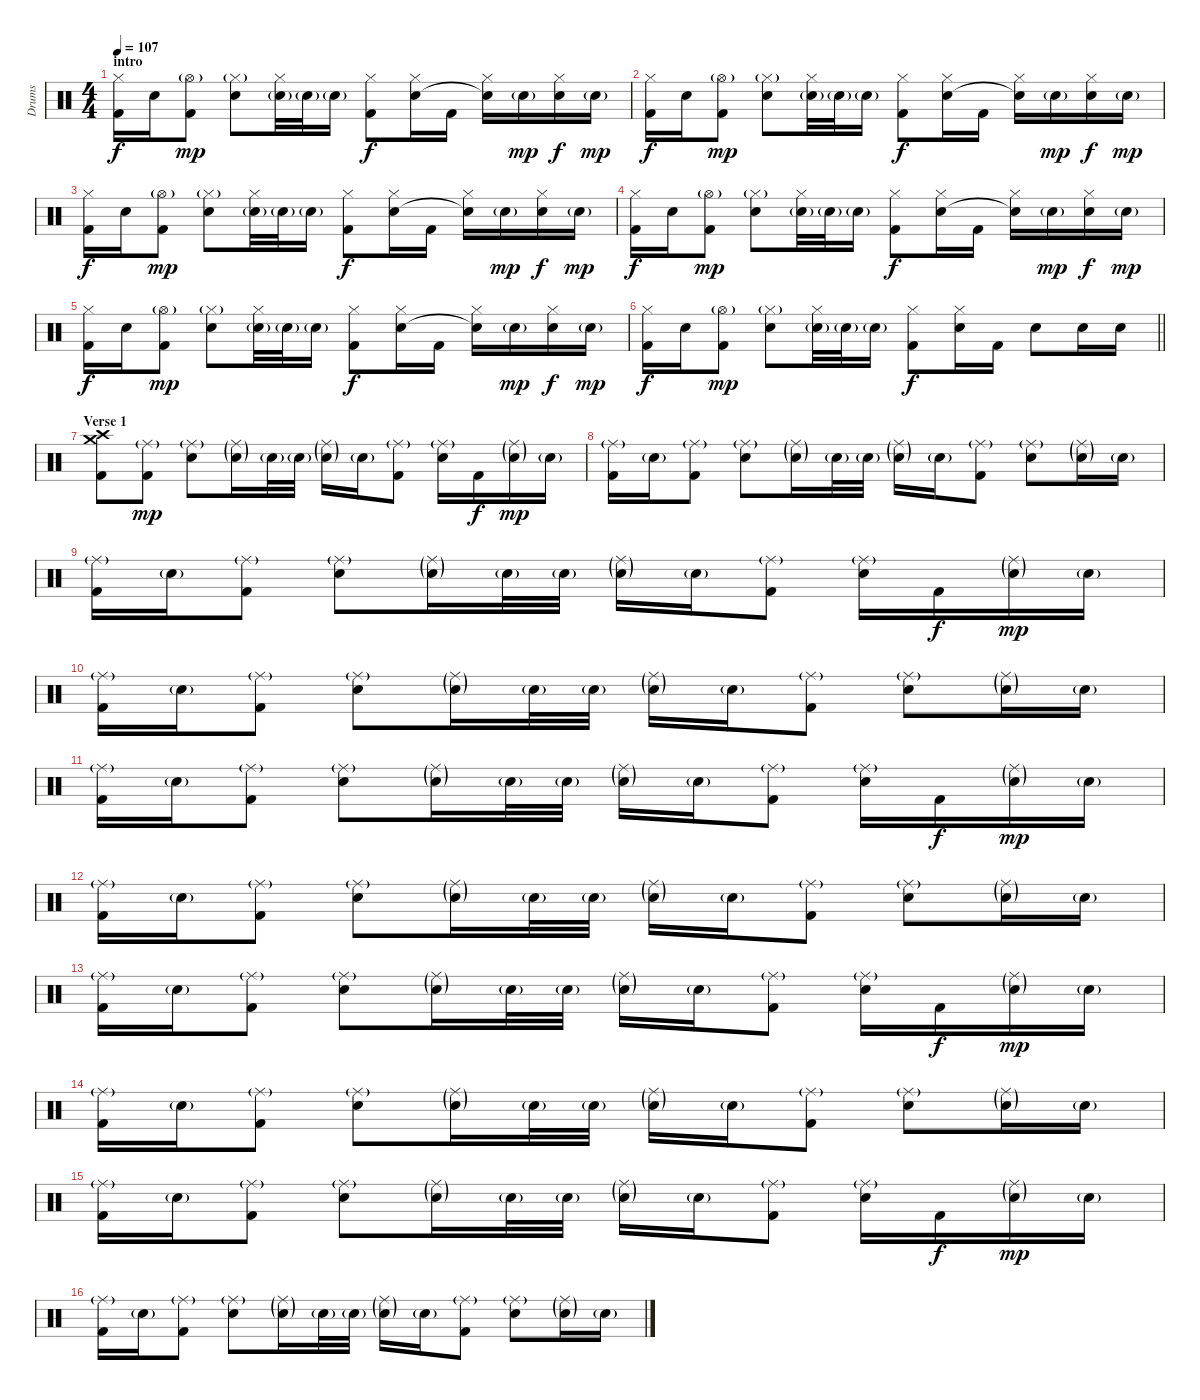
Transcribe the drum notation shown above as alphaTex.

\track ("Drums" "Drums") {instrument percussion}
\staff {score}
\articulation defaults
\ts (4 4)
\section ("" "intro")
\tempo 107
\clef neutral
\ks c
("Hi-Hat (closed)" "Kick (hit) 2").16{dy f} "Electric Snare (hit)".16 ("Hi-Hat (open)"{g} "Kick (hit) 2").8{dy mp} ("Hi-Hat (closed)"{g} "Electric Snare (hit)").8 ("Hi-Hat (closed)" "Electric Snare (hit)"{g}).32 "Electric Snare (hit)"{g}.32 "Electric Snare (hit)"{g}.16 ("Hi-Hat (closed)" "Kick (hit) 2").8{dy f} ("Hi-Hat (closed)" "Electric Snare (hit)").16 "Kick (hit) 2".16 ("Hi-Hat (closed)" "Snare (hit)"{t}).16 "Electric Snare (hit)"{g}.16{dy mp} ("Hi-Hat (closed)" "Electric Snare (hit)").16{dy f} "Electric Snare (hit)"{g}.16{dy mp} |
("Hi-Hat (closed)" "Kick (hit) 2").16{dy f volume 8} "Electric Snare (hit)".16 ("Hi-Hat (open)"{g} "Kick (hit) 2").8{dy mp} ("Hi-Hat (closed)"{g} "Electric Snare (hit)").8 ("Hi-Hat (closed)" "Electric Snare (hit)"{g}).32 "Electric Snare (hit)"{g}.32 "Electric Snare (hit)"{g}.16 ("Hi-Hat (closed)" "Kick (hit) 2").8{dy f} ("Hi-Hat (closed)" "Electric Snare (hit)").16 "Kick (hit) 2".16 ("Hi-Hat (closed)" "Snare (hit)"{t}).16 "Electric Snare (hit)"{g}.16{dy mp} ("Hi-Hat (closed)" "Electric Snare (hit)").16{dy f} "Electric Snare (hit)"{g}.16{dy mp} |
("Hi-Hat (closed)" "Kick (hit) 2").16{dy f volume 9} "Electric Snare (hit)".16 ("Hi-Hat (open)"{g} "Kick (hit) 2").8{dy mp} ("Hi-Hat (closed)"{g} "Electric Snare (hit)").8 ("Hi-Hat (closed)" "Electric Snare (hit)"{g}).32 "Electric Snare (hit)"{g}.32 "Electric Snare (hit)"{g}.16 ("Hi-Hat (closed)" "Kick (hit) 2").8{dy f} ("Hi-Hat (closed)" "Electric Snare (hit)").16 "Kick (hit) 2".16 ("Hi-Hat (closed)" "Snare (hit)"{t}).16 "Electric Snare (hit)"{g}.16{dy mp} ("Hi-Hat (closed)" "Electric Snare (hit)").16{dy f} "Electric Snare (hit)"{g}.16{dy mp} |
("Hi-Hat (closed)" "Kick (hit) 2").16{dy f} "Electric Snare (hit)".16 ("Hi-Hat (open)"{g} "Kick (hit) 2").8{dy mp} ("Hi-Hat (closed)"{g} "Electric Snare (hit)").8 ("Hi-Hat (closed)" "Electric Snare (hit)"{g}).32 "Electric Snare (hit)"{g}.32 "Electric Snare (hit)"{g}.16 ("Hi-Hat (closed)" "Kick (hit) 2").8{dy f} ("Hi-Hat (closed)" "Electric Snare (hit)").16 "Kick (hit) 2".16 ("Hi-Hat (closed)" "Snare (hit)"{t}).16 "Electric Snare (hit)"{g}.16{dy mp} ("Hi-Hat (closed)" "Electric Snare (hit)").16{dy f} "Electric Snare (hit)"{g}.16{dy mp} |
("Hi-Hat (closed)" "Kick (hit) 2").16{dy f} "Electric Snare (hit)".16 ("Hi-Hat (open)"{g} "Kick (hit) 2").8{dy mp} ("Hi-Hat (closed)"{g} "Electric Snare (hit)").8 ("Hi-Hat (closed)" "Electric Snare (hit)"{g}).32 "Electric Snare (hit)"{g}.32 "Electric Snare (hit)"{g}.16 ("Hi-Hat (closed)" "Kick (hit) 2").8{dy f} ("Hi-Hat (closed)" "Electric Snare (hit)").16 "Kick (hit) 2".16 ("Hi-Hat (closed)" "Snare (hit)"{t}).16 "Electric Snare (hit)"{g}.16{dy mp} ("Hi-Hat (closed)" "Electric Snare (hit)").16{dy f} "Electric Snare (hit)"{g}.16{dy mp} |
\barLineRight lightlight
("Hi-Hat (closed)" "Kick (hit) 2").16{dy f} "Electric Snare (hit)".16 ("Hi-Hat (open)"{g} "Kick (hit) 2").8{dy mp} ("Hi-Hat (closed)"{g} "Electric Snare (hit)").8 ("Hi-Hat (closed)" "Electric Snare (hit)"{g}).32 "Electric Snare (hit)"{g}.32 "Electric Snare (hit)"{g}.16 ("Hi-Hat (closed)" "Kick (hit) 2").8{dy f} ("Hi-Hat (closed)" "Electric Snare (hit)").16 "Kick (hit) 2".16 "Electric Snare (hit)".8{volume 11} "Electric Snare (hit)".16 "Electric Snare (hit)".16 |
\section ("" "Verse 1")
("Crash high (hit)" "Crash medium (hit)" "Kick (hit) 2").8 ("Ride (middle)"{g} "Kick (hit) 2").8{dy mp} ("Ride (middle)"{g} "Electric Snare (hit)").8 ("Ride (middle)"{g} "Electric Snare (hit)"{g}).16 "Electric Snare (hit)"{g}.32 "Electric Snare (hit)"{g}.32 ("Ride (middle)"{g} "Electric Snare (hit)"{g}).16 "Electric Snare (hit)"{g}.16 ("Ride (middle)"{g} "Kick (hit) 2").8 ("Ride (middle)"{g} "Electric Snare (hit)").16 "Kick (hit) 2".16{dy f} ("Ride (middle)"{g} "Electric Snare (hit)"{g}).16{dy mp} "Electric Snare (hit)"{g}.16 |
("Ride (middle)"{g} "Kick (hit) 2").16 "Electric Snare (hit)"{g}.16 ("Ride (middle)"{g} "Kick (hit) 2").8 ("Ride (middle)"{g} "Electric Snare (hit)").8 ("Ride (middle)"{g} "Electric Snare (hit)"{g}).16 "Electric Snare (hit)"{g}.32 "Electric Snare (hit)"{g}.32 ("Ride (middle)"{g} "Electric Snare (hit)"{g}).16 "Electric Snare (hit)"{g}.16 ("Ride (middle)"{g} "Kick (hit) 2").8 ("Ride (middle)"{g} "Electric Snare (hit)").8 ("Ride (middle)"{g} "Electric Snare (hit)"{g}).16 "Electric Snare (hit)"{g}.16 |
("Ride (middle)"{g} "Kick (hit) 2").16 "Electric Snare (hit)"{g}.16 ("Ride (middle)"{g} "Kick (hit) 2").8 ("Ride (middle)"{g} "Electric Snare (hit)").8 ("Ride (middle)"{g} "Electric Snare (hit)"{g}).16 "Electric Snare (hit)"{g}.32 "Electric Snare (hit)"{g}.32 ("Ride (middle)"{g} "Electric Snare (hit)"{g}).16 "Electric Snare (hit)"{g}.16 ("Ride (middle)"{g} "Kick (hit) 2").8 ("Ride (middle)"{g} "Electric Snare (hit)").16 "Kick (hit) 2".16{dy f} ("Ride (middle)"{g} "Electric Snare (hit)"{g}).16{dy mp} "Electric Snare (hit)"{g}.16 |
("Ride (middle)"{g} "Kick (hit) 2").16 "Electric Snare (hit)"{g}.16 ("Ride (middle)"{g} "Kick (hit) 2").8 ("Ride (middle)"{g} "Electric Snare (hit)").8 ("Ride (middle)"{g} "Electric Snare (hit)"{g}).16 "Electric Snare (hit)"{g}.32 "Electric Snare (hit)"{g}.32 ("Ride (middle)"{g} "Electric Snare (hit)"{g}).16 "Electric Snare (hit)"{g}.16 ("Ride (middle)"{g} "Kick (hit) 2").8 ("Ride (middle)"{g} "Electric Snare (hit)").8 ("Ride (middle)"{g} "Electric Snare (hit)"{g}).16 "Electric Snare (hit)"{g}.16 |
("Ride (middle)"{g} "Kick (hit) 2").16 "Electric Snare (hit)"{g}.16 ("Ride (middle)"{g} "Kick (hit) 2").8 ("Ride (middle)"{g} "Electric Snare (hit)").8 ("Ride (middle)"{g} "Electric Snare (hit)"{g}).16 "Electric Snare (hit)"{g}.32 "Electric Snare (hit)"{g}.32 ("Ride (middle)"{g} "Electric Snare (hit)"{g}).16 "Electric Snare (hit)"{g}.16 ("Ride (middle)"{g} "Kick (hit) 2").8 ("Ride (middle)"{g} "Electric Snare (hit)").16 "Kick (hit) 2".16{dy f} ("Ride (middle)"{g} "Electric Snare (hit)"{g}).16{dy mp} "Electric Snare (hit)"{g}.16 |
("Ride (middle)"{g} "Kick (hit) 2").16 "Electric Snare (hit)"{g}.16 ("Ride (middle)"{g} "Kick (hit) 2").8 ("Ride (middle)"{g} "Electric Snare (hit)").8 ("Ride (middle)"{g} "Electric Snare (hit)"{g}).16 "Electric Snare (hit)"{g}.32 "Electric Snare (hit)"{g}.32 ("Ride (middle)"{g} "Electric Snare (hit)"{g}).16 "Electric Snare (hit)"{g}.16 ("Ride (middle)"{g} "Kick (hit) 2").8 ("Ride (middle)"{g} "Electric Snare (hit)").8 ("Ride (middle)"{g} "Electric Snare (hit)"{g}).16 "Electric Snare (hit)"{g}.16 |
("Ride (middle)"{g} "Kick (hit) 2").16 "Electric Snare (hit)"{g}.16 ("Ride (middle)"{g} "Kick (hit) 2").8 ("Ride (middle)"{g} "Electric Snare (hit)").8 ("Ride (middle)"{g} "Electric Snare (hit)"{g}).16 "Electric Snare (hit)"{g}.32 "Electric Snare (hit)"{g}.32 ("Ride (middle)"{g} "Electric Snare (hit)"{g}).16 "Electric Snare (hit)"{g}.16 ("Ride (middle)"{g} "Kick (hit) 2").8 ("Ride (middle)"{g} "Electric Snare (hit)").16 "Kick (hit) 2".16{dy f} ("Ride (middle)"{g} "Electric Snare (hit)"{g}).16{dy mp} "Electric Snare (hit)"{g}.16 |
("Ride (middle)"{g} "Kick (hit) 2").16 "Electric Snare (hit)"{g}.16 ("Ride (middle)"{g} "Kick (hit) 2").8 ("Ride (middle)"{g} "Electric Snare (hit)").8 ("Ride (middle)"{g} "Electric Snare (hit)"{g}).16 "Electric Snare (hit)"{g}.32 "Electric Snare (hit)"{g}.32 ("Ride (middle)"{g} "Electric Snare (hit)"{g}).16 "Electric Snare (hit)"{g}.16 ("Ride (middle)"{g} "Kick (hit) 2").8 ("Ride (middle)"{g} "Electric Snare (hit)").8 ("Ride (middle)"{g} "Electric Snare (hit)"{g}).16 "Electric Snare (hit)"{g}.16 |
("Ride (middle)"{g} "Kick (hit) 2").16 "Electric Snare (hit)"{g}.16 ("Ride (middle)"{g} "Kick (hit) 2").8 ("Ride (middle)"{g} "Electric Snare (hit)").8 ("Ride (middle)"{g} "Electric Snare (hit)"{g}).16 "Electric Snare (hit)"{g}.32 "Electric Snare (hit)"{g}.32 ("Ride (middle)"{g} "Electric Snare (hit)"{g}).16 "Electric Snare (hit)"{g}.16 ("Ride (middle)"{g} "Kick (hit) 2").8 ("Ride (middle)"{g} "Electric Snare (hit)").16 "Kick (hit) 2".16{dy f} ("Ride (middle)"{g} "Electric Snare (hit)"{g}).16{dy mp} "Electric Snare (hit)"{g}.16 |
("Ride (middle)"{g} "Kick (hit) 2").16 "Electric Snare (hit)"{g}.16 ("Ride (middle)"{g} "Kick (hit) 2").8 ("Ride (middle)"{g} "Electric Snare (hit)").8 ("Ride (middle)"{g} "Electric Snare (hit)"{g}).16 "Electric Snare (hit)"{g}.32 "Electric Snare (hit)"{g}.32 ("Ride (middle)"{g} "Electric Snare (hit)"{g}).16 "Electric Snare (hit)"{g}.16 ("Ride (middle)"{g} "Kick (hit) 2").8 ("Ride (middle)"{g} "Electric Snare (hit)").8 ("Ride (middle)"{g} "Electric Snare (hit)"{g}).16 "Electric Snare (hit)"{g}.16
